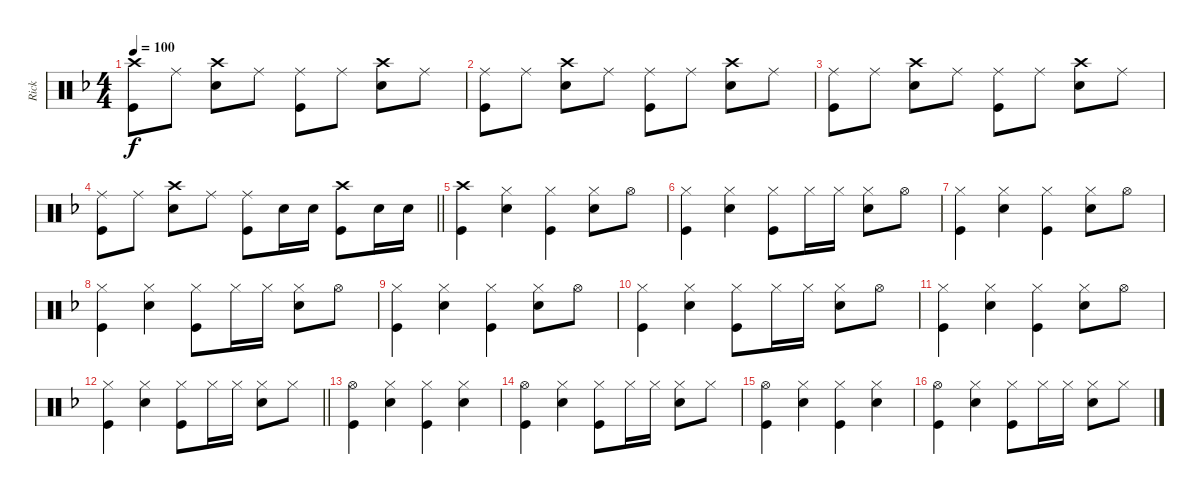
\track ("Rick" "Rick") {instrument percussion}
\staff {score}
\articulation defaults
\ts (4 4)
\tempo 100
\clef neutral
\ks dminor
("Crash high (hit)" "Kick (hit)").8{dy f} "Ride (middle)".8 ("Crash high (hit)" "Snare (hit) 2").8 "Ride (middle)".8 ("Ride (middle)" "Kick (hit)").8 "Ride (middle)".8 ("Crash high (hit)" "Snare (hit) 2").8 "Ride (middle)".8 |
("Ride (middle)" "Kick (hit)").8 "Ride (middle)".8 ("Crash high (hit)" "Snare (hit) 2").8 "Ride (middle)".8 ("Ride (middle)" "Kick (hit)").8 "Ride (middle)".8 ("Crash high (hit)" "Snare (hit) 2").8 "Ride (middle)".8 |
("Ride (middle)" "Kick (hit)").8 "Ride (middle)".8 ("Crash high (hit)" "Snare (hit) 2").8 "Ride (middle)".8 ("Ride (middle)" "Kick (hit)").8 "Ride (middle)".8 ("Crash high (hit)" "Snare (hit) 2").8 "Ride (middle)".8 |
\barLineRight lightlight
("Ride (middle)" "Kick (hit)").8 "Ride (middle)".8 ("Crash high (hit)" "Snare (hit) 2").8 "Ride (middle)".8 ("Ride (middle)" "Kick (hit)").8 "Snare (hit) 2".16 "Snare (hit) 2".16 ("Crash high (hit)" "Kick (hit)").8 "Snare (hit) 2".16 "Snare (hit) 2".16 |
("Crash high (hit)" "Kick (hit)").4 ("Hi-Hat (closed)" "Snare (hit) 2").4 ("Hi-Hat (closed)" "Kick (hit)").4 ("Hi-Hat (closed)" "Snare (hit) 2").8 "Hi-Hat (open)".8 |
("Hi-Hat (closed)" "Kick (hit)").4 ("Hi-Hat (closed)" "Snare (hit) 2").4 ("Hi-Hat (closed)" "Kick (hit)").8 "Hi-Hat (closed)".16 "Hi-Hat (closed)".16 ("Hi-Hat (closed)" "Snare (hit) 2").8 "Hi-Hat (open)".8 |
("Hi-Hat (closed)" "Kick (hit)").4 ("Hi-Hat (closed)" "Snare (hit) 2").4 ("Hi-Hat (closed)" "Kick (hit)").4 ("Hi-Hat (closed)" "Snare (hit) 2").8 "Hi-Hat (open)".8 |
("Hi-Hat (closed)" "Kick (hit)").4 ("Hi-Hat (closed)" "Snare (hit) 2").4 ("Hi-Hat (closed)" "Kick (hit)").8 "Hi-Hat (closed)".16 "Hi-Hat (closed)".16 ("Hi-Hat (closed)" "Snare (hit) 2").8 "Hi-Hat (open)".8 |
("Hi-Hat (closed)" "Kick (hit)").4 ("Hi-Hat (closed)" "Snare (hit) 2").4 ("Hi-Hat (closed)" "Kick (hit)").4 ("Hi-Hat (closed)" "Snare (hit) 2").8 "Hi-Hat (open)".8 |
("Hi-Hat (closed)" "Kick (hit)").4 ("Hi-Hat (closed)" "Snare (hit) 2").4 ("Hi-Hat (closed)" "Kick (hit)").8 "Hi-Hat (closed)".16 "Hi-Hat (closed)".16 ("Hi-Hat (closed)" "Snare (hit) 2").8 "Hi-Hat (open)".8 |
("Hi-Hat (closed)" "Kick (hit)").4 ("Hi-Hat (closed)" "Snare (hit) 2").4 ("Hi-Hat (closed)" "Kick (hit)").4 ("Hi-Hat (closed)" "Snare (hit) 2").8 "Hi-Hat (open)".8 |
\barLineRight lightlight
("Hi-Hat (closed)" "Kick (hit)").4 ("Hi-Hat (closed)" "Snare (hit) 2").4 ("Hi-Hat (closed)" "Kick (hit)").8 "Hi-Hat (closed)".16 "Hi-Hat (closed)".16 ("Hi-Hat (closed)" "Snare (hit) 2").8 "Hi-Hat (closed)".8 |
("Hi-Hat (open)" "Kick (hit)").4 ("Hi-Hat (closed)" "Snare (hit) 2").4 ("Hi-Hat (closed)" "Kick (hit)").4 ("Hi-Hat (closed)" "Snare (hit) 2").4 |
("Hi-Hat (open)" "Kick (hit)").4 ("Hi-Hat (closed)" "Snare (hit) 2").4 ("Hi-Hat (closed)" "Kick (hit)").8 "Hi-Hat (closed)".16 "Hi-Hat (closed)".16 ("Hi-Hat (closed)" "Snare (hit) 2").8 "Hi-Hat (closed)".8 |
("Hi-Hat (open)" "Kick (hit)").4 ("Hi-Hat (closed)" "Snare (hit) 2").4 ("Hi-Hat (closed)" "Kick (hit)").4 ("Hi-Hat (closed)" "Snare (hit) 2").4 |
("Hi-Hat (open)" "Kick (hit)").4 ("Hi-Hat (closed)" "Snare (hit) 2").4 ("Hi-Hat (closed)" "Kick (hit)").8 "Hi-Hat (closed)".16 "Hi-Hat (closed)".16 ("Hi-Hat (closed)" "Snare (hit) 2").8 "Hi-Hat (closed)".8
